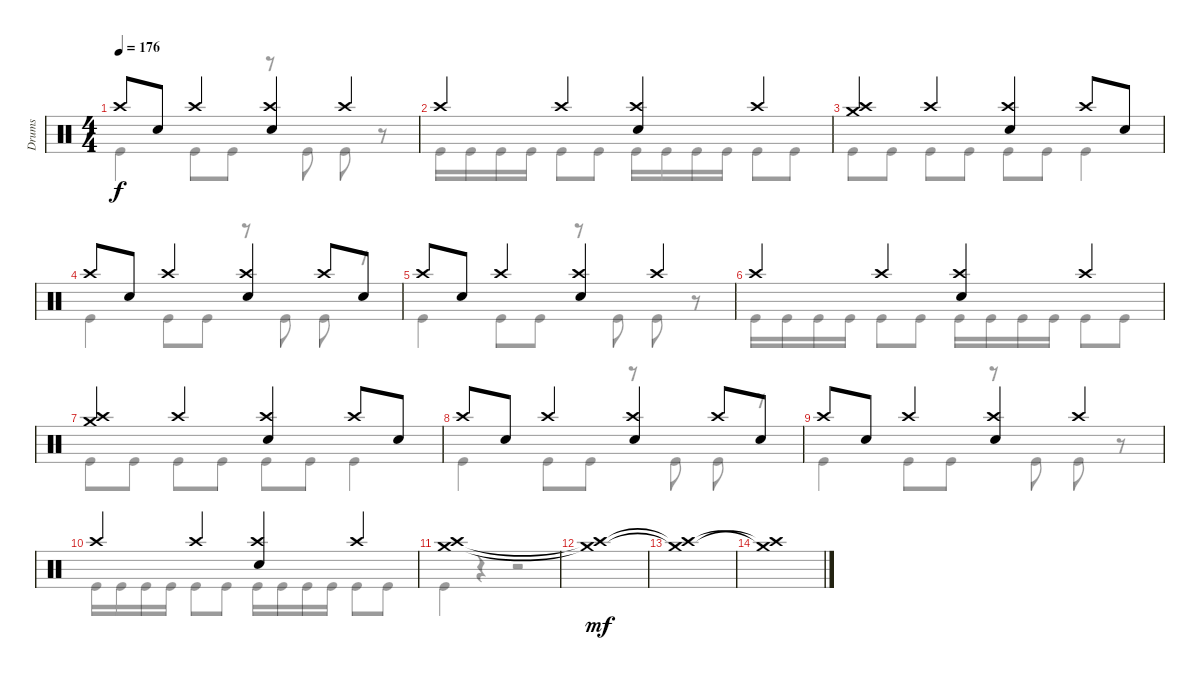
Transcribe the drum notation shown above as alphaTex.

\track ("Drums" "Drums") {instrument percussion}
\staff {score}
\articulation defaults
\voice
\ts (4 4)
\tempo 176
\clef neutral
\ks c "Crash high (hit)".8{dy f} "Snare (hit) 2".8 "Crash high (hit)".4
("Crash high (hit)" "Snare (hit) 2").4 "Crash high (hit)".4 |
"Crash high (hit)".4 "Crash high (hit)".4 ("Crash high (hit)" "Snare (hit) 2").4 "Crash high (hit)".4 |
("Crash medium (hit)" "Crash high (hit)").4 "Crash high (hit)".4 ("Crash high (hit)" "Snare (hit) 2").4 "Crash high (hit)".8 "Snare (hit) 2".8 |
"Crash high (hit)".8 "Snare (hit) 2".8 "Crash high (hit)".4 ("Crash high (hit)" "Snare (hit) 2").4 "Crash high (hit)".8 "Snare (hit) 2".8 |
"Crash high (hit)".8 "Snare (hit) 2".8 "Crash high (hit)".4 ("Crash high (hit)" "Snare (hit) 2").4 "Crash high (hit)".4 |
"Crash high (hit)".4 "Crash high (hit)".4 ("Crash high (hit)" "Snare (hit) 2").4 "Crash high (hit)".4 |
("Crash medium (hit)" "Crash high (hit)").4 "Crash high (hit)".4 ("Crash high (hit)" "Snare (hit) 2").4 "Crash high (hit)".8 "Snare (hit) 2".8 |
"Crash high (hit)".8 "Snare (hit) 2".8 "Crash high (hit)".4 ("Crash high (hit)" "Snare (hit) 2").4 "Crash high (hit)".8 "Snare (hit) 2".8 |
"Crash high (hit)".8 "Snare (hit) 2".8 "Crash high (hit)".4 ("Crash high (hit)" "Snare (hit) 2").4 "Crash high (hit)".4 |
"Crash high (hit)".4 "Crash high (hit)".4 ("Crash high (hit)" "Snare (hit) 2").4 "Crash high (hit)".4 |
("Crash medium (hit)" "Crash high (hit)").1 |
("Crash medium (hit)"{t} "Crash high (hit)"{t}).1{dy mf} |
("Crash medium (hit)"{t} "Crash high (hit)"{t}).1 |
("Crash high (hit)"{t} "Crash medium (hit)"{t}).1
\voice
\clef neutral
\ottava regular
\simile none
\ks c "Kick (hit)".4{dy f} "Kick (hit)".8 "Kick (hit)".8
r.8 "Kick (hit)".8 "Kick (hit)".8 r.8 |
"Kick (hit)".16 "Kick (hit)".16 "Kick (hit)".16 "Kick (hit)".16 "Kick (hit)".8 "Kick (hit)".8 "Kick (hit)".16 "Kick (hit)".16 "Kick (hit)".16 "Kick (hit)".16 "Kick (hit)".8 "Kick (hit)".8 |
"Kick (hit)".8 "Kick (hit)".8 "Kick (hit)".8 "Kick (hit)".8 "Kick (hit)".8 "Kick (hit)".8 "Kick (hit)".4 |
"Kick (hit)".4 "Kick (hit)".8 "Kick (hit)".8 r.8 "Kick (hit)".8 "Kick (hit)".8 r.8 |
"Kick (hit)".4 "Kick (hit)".8 "Kick (hit)".8 r.8 "Kick (hit)".8 "Kick (hit)".8 r.8 |
"Kick (hit)".16 "Kick (hit)".16 "Kick (hit)".16 "Kick (hit)".16 "Kick (hit)".8 "Kick (hit)".8 "Kick (hit)".16 "Kick (hit)".16 "Kick (hit)".16 "Kick (hit)".16 "Kick (hit)".8 "Kick (hit)".8 |
"Kick (hit)".8 "Kick (hit)".8 "Kick (hit)".8 "Kick (hit)".8 "Kick (hit)".8 "Kick (hit)".8 "Kick (hit)".4 |
"Kick (hit)".4 "Kick (hit)".8 "Kick (hit)".8 r.8 "Kick (hit)".8 "Kick (hit)".8 r.8 |
"Kick (hit)".4 "Kick (hit)".8 "Kick (hit)".8 r.8 "Kick (hit)".8 "Kick (hit)".8 r.8 |
"Kick (hit)".16 "Kick (hit)".16 "Kick (hit)".16 "Kick (hit)".16 "Kick (hit)".8 "Kick (hit)".8 "Kick (hit)".16 "Kick (hit)".16 "Kick (hit)".16 "Kick (hit)".16 "Kick (hit)".8 "Kick (hit)".8 |
"Kick (hit)".4 r.4 r.2 |
|
|
